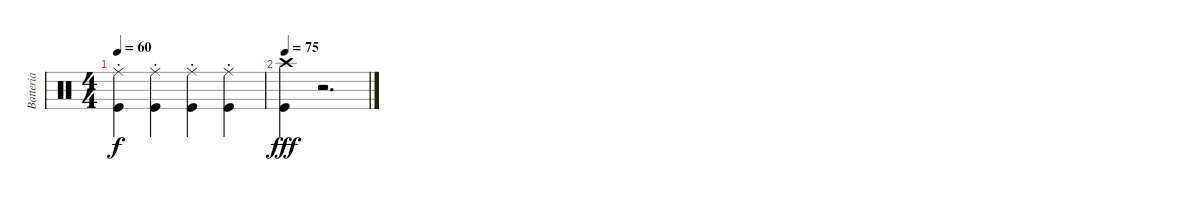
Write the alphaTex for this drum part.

\track ("Batteria" "Batteria") {instrument percussion}
\staff {score}
\articulation defaults
\ts (4 4)
\tempo 60
\clef neutral
\ks c
("Ride (middle)"{st} "Kick (hit)"{st}).4{dy f} ("Ride (middle)"{st} "Kick (hit)"{st}).4 ("Ride (middle)"{st} "Kick (hit)"{st}).4 ("Ride (middle)"{st} "Kick (hit)"{st}).4 |
\tempo 75
("Crash high (hit)" "Kick (hit)").4{dy fff} r.2{d}
